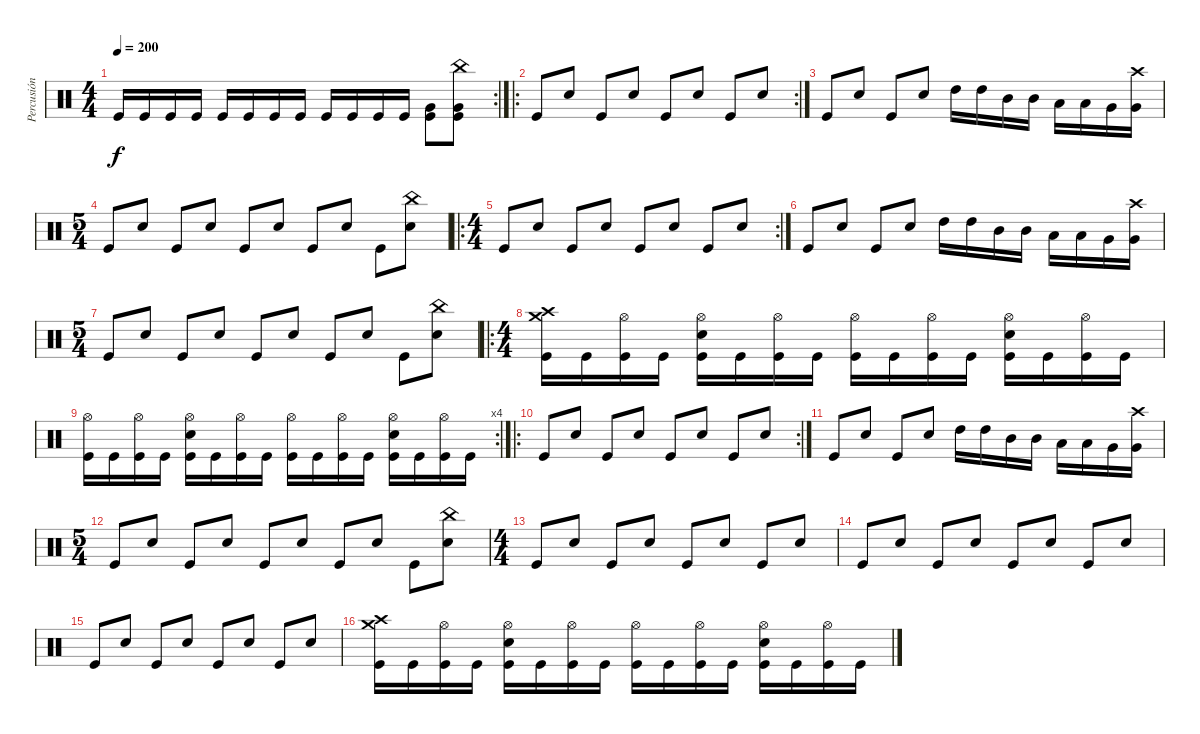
\track ("Percusión" "Percusión") {instrument percussion}
\staff {score}
\articulation defaults
\rc 2
\ts (4 4)
\tempo 200
\clef neutral
\ks c "Kick (hit)".16{dy f} "Kick (hit)".16 "Kick (hit)".16 "Kick (hit)".16 "Kick (hit)".16 "Kick (hit)".16 "Kick (hit)".16 "Kick (hit)".16 "Kick (hit)".16 "Kick (hit)".16 "Kick (hit)".16 "Kick (hit)".16
("Very Low Tom (hit)" "Kick (hit)").8 ("China (hit)" "Very Low Tom (hit)" "Kick (hit)").8 |
\ro
\rc 2 "Kick (hit)".8 "Snare (hit) 2".8 "Kick (hit)".8 "Snare (hit) 2".8 "Kick (hit)".8 "Snare (hit) 2".8 "Kick (hit)".8 "Snare (hit) 2".8
|
"Kick (hit)".8 "Snare (hit) 2".8 "Kick (hit)".8 "Snare (hit) 2".8 "High Tom (hit)".16 "High Tom (hit)".16 "Mid Tom (hit)".16 "Mid Tom (hit)".16 "Low Tom (hit)".16 "Low Tom (hit)".16 "Very Low Tom (hit)".16 ("Crash high (hit)" "Very Low Tom (hit)").16 |
\ts (5 4)
"Kick (hit)".8 "Snare (hit) 2".8 "Kick (hit)".8 "Snare (hit) 2".8 "Kick (hit)".8 "Snare (hit) 2".8 "Kick (hit)".8 "Snare (hit) 2".8 "Kick (hit)".8 ("China (hit)" "Snare (hit) 2").8 |
\ro
\rc 2
\ts (4 4)
"Kick (hit)".8 "Snare (hit) 2".8 "Kick (hit)".8 "Snare (hit) 2".8 "Kick (hit)".8 "Snare (hit) 2".8 "Kick (hit)".8 "Snare (hit) 2".8 |
"Kick (hit)".8 "Snare (hit) 2".8 "Kick (hit)".8 "Snare (hit) 2".8 "High Tom (hit)".16 "High Tom (hit)".16 "Mid Tom (hit)".16 "Mid Tom (hit)".16 "Low Tom (hit)".16 "Low Tom (hit)".16 "Very Low Tom (hit)".16 ("Crash high (hit)" "Very Low Tom (hit)").16 |
\ts (5 4)
"Kick (hit)".8 "Snare (hit) 2".8 "Kick (hit)".8 "Snare (hit) 2".8 "Kick (hit)".8 "Snare (hit) 2".8 "Kick (hit)".8 "Snare (hit) 2".8 "Kick (hit)".8 ("China (hit)" "Snare (hit) 2").8 |
\ro
\ts (4 4)
("Crash high (hit)" "Crash medium (hit)" "Kick (hit)").16 "Kick (hit)".16 ("Hi-Hat (open)" "Kick (hit)").16 "Kick (hit)".16 ("Hi-Hat (open)" "Electric Snare (hit)" "Kick (hit)").16 "Kick (hit)".16 ("Hi-Hat (open)" "Kick (hit)").16 "Kick (hit)".16 ("Hi-Hat (open)" "Kick (hit)").16 "Kick (hit)".16 ("Hi-Hat (open)" "Kick (hit)").16 "Kick (hit)".16 ("Hi-Hat (open)" "Electric Snare (hit)" "Kick (hit)").16 "Kick (hit)".16 ("Hi-Hat (open)" "Kick (hit)").16 "Kick (hit)".16 |
\rc 4
("Hi-Hat (open)" "Kick (hit)").16 "Kick (hit)".16 ("Hi-Hat (open)" "Kick (hit)").16 "Kick (hit)".16 ("Hi-Hat (open)" "Electric Snare (hit)" "Kick (hit)").16 "Kick (hit)".16 ("Hi-Hat (open)" "Kick (hit)").16 "Kick (hit)".16 ("Hi-Hat (open)" "Kick (hit)").16 "Kick (hit)".16 ("Hi-Hat (open)" "Kick (hit)").16 "Kick (hit)".16 ("Hi-Hat (open)" "Electric Snare (hit)" "Kick (hit)").16 "Kick (hit)".16 ("Hi-Hat (open)" "Kick (hit)").16 "Kick (hit)".16 |
\ro
\rc 2 "Kick (hit)".8 "Snare (hit) 2".8 "Kick (hit)".8 "Snare (hit) 2".8 "Kick (hit)".8 "Snare (hit) 2".8 "Kick (hit)".8 "Snare (hit) 2".8
|
"Kick (hit)".8 "Snare (hit) 2".8 "Kick (hit)".8 "Snare (hit) 2".8 "High Tom (hit)".16 "High Tom (hit)".16 "Mid Tom (hit)".16 "Mid Tom (hit)".16 "Low Tom (hit)".16 "Low Tom (hit)".16 "Very Low Tom (hit)".16 ("Crash high (hit)" "Very Low Tom (hit)").16 |
\ts (5 4)
"Kick (hit)".8 "Snare (hit) 2".8 "Kick (hit)".8 "Snare (hit) 2".8 "Kick (hit)".8 "Snare (hit) 2".8 "Kick (hit)".8 "Snare (hit) 2".8 "Kick (hit)".8 ("China (hit)" "Snare (hit) 2").8 |
\ts (4 4)
"Kick (hit)".8 "Snare (hit) 2".8 "Kick (hit)".8 "Snare (hit) 2".8 "Kick (hit)".8 "Snare (hit) 2".8 "Kick (hit)".8 "Snare (hit) 2".8 |
"Kick (hit)".8 "Snare (hit) 2".8 "Kick (hit)".8 "Snare (hit) 2".8 "Kick (hit)".8 "Snare (hit) 2".8 "Kick (hit)".8 "Snare (hit) 2".8 |
"Kick (hit)".8 "Snare (hit) 2".8 "Kick (hit)".8 "Snare (hit) 2".8 "Kick (hit)".8 "Snare (hit) 2".8 "Kick (hit)".8 "Snare (hit) 2".8 |
("Crash high (hit)" "Crash medium (hit)" "Kick (hit)").16 "Kick (hit)".16 ("Hi-Hat (open)" "Kick (hit)").16 "Kick (hit)".16 ("Hi-Hat (open)" "Electric Snare (hit)" "Kick (hit)").16 "Kick (hit)".16 ("Hi-Hat (open)" "Kick (hit)").16 "Kick (hit)".16 ("Hi-Hat (open)" "Kick (hit)").16 "Kick (hit)".16 ("Hi-Hat (open)" "Kick (hit)").16 "Kick (hit)".16 ("Hi-Hat (open)" "Electric Snare (hit)" "Kick (hit)").16 "Kick (hit)".16 ("Hi-Hat (open)" "Kick (hit)").16 "Kick (hit)".16
